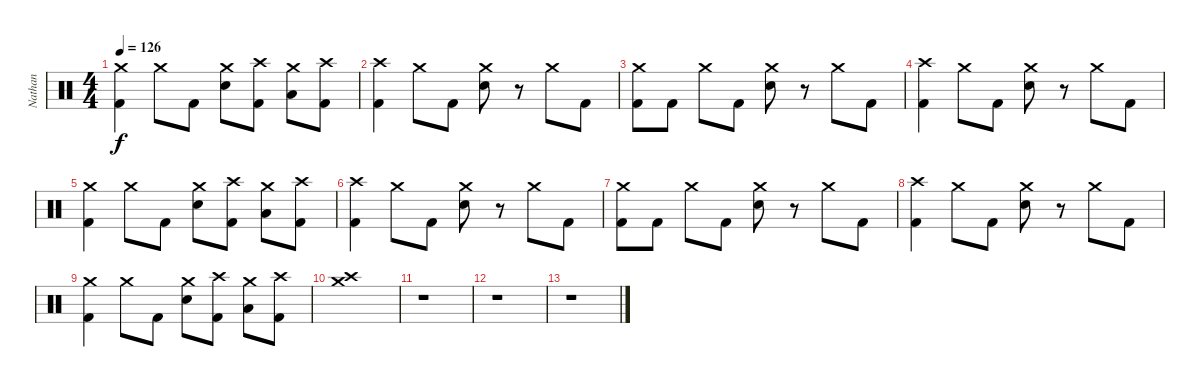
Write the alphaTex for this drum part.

\track ("Nathan" "Nathan") {instrument percussion}
\staff {score}
\articulation defaults
\ts (4 4)
\tempo 126
\clef neutral
\ks c
("Crash medium (hit)" "Kick (hit) 2").4{dy f} "Crash medium (hit)".8 "Kick (hit) 2".8 ("Crash medium (hit)" "Electric Snare (hit)").8 ("Crash high (hit)" "Kick (hit) 2").8 ("Crash medium (hit)" "Low Floor Tom (hit)").8 ("Crash high (hit)" "Kick (hit) 2").8 |
("Crash high (hit)" "Kick (hit) 2").4 "Crash medium (hit)".8 "Kick (hit) 2".8 ("Crash medium (hit)" "Electric Snare (hit)").8 r.8 "Crash medium (hit)".8 "Kick (hit) 2".8 |
("Crash medium (hit)" "Kick (hit) 2").8 "Kick (hit) 2".8 "Crash medium (hit)".8 "Kick (hit) 2".8 ("Crash medium (hit)" "Electric Snare (hit)").8 r.8 "Crash medium (hit)".8 "Kick (hit) 2".8 |
("Crash high (hit)" "Kick (hit) 2").4 "Crash medium (hit)".8 "Kick (hit) 2".8 ("Crash medium (hit)" "Electric Snare (hit)").8 r.8 "Crash medium (hit)".8 "Kick (hit) 2".8 |
("Crash medium (hit)" "Kick (hit) 2").4 "Crash medium (hit)".8 "Kick (hit) 2".8 ("Crash medium (hit)" "Electric Snare (hit)").8 ("Crash high (hit)" "Kick (hit) 2").8 ("Crash medium (hit)" "Low Floor Tom (hit)").8 ("Crash high (hit)" "Kick (hit) 2").8 |
("Crash high (hit)" "Kick (hit) 2").4 "Crash medium (hit)".8 "Kick (hit) 2".8 ("Crash medium (hit)" "Electric Snare (hit)").8 r.8 "Crash medium (hit)".8 "Kick (hit) 2".8 |
("Crash medium (hit)" "Kick (hit) 2").8 "Kick (hit) 2".8 "Crash medium (hit)".8 "Kick (hit) 2".8 ("Crash medium (hit)" "Electric Snare (hit)").8 r.8 "Crash medium (hit)".8 "Kick (hit) 2".8 |
("Crash high (hit)" "Kick (hit) 2").4 "Crash medium (hit)".8 "Kick (hit) 2".8 ("Crash medium (hit)" "Electric Snare (hit)").8 r.8 "Crash medium (hit)".8 "Kick (hit) 2".8 |
("Crash medium (hit)" "Kick (hit) 2").4 "Crash medium (hit)".8 "Kick (hit) 2".8 ("Crash medium (hit)" "Electric Snare (hit)").8 ("Crash high (hit)" "Kick (hit) 2").8 ("Crash medium (hit)" "Low Floor Tom (hit)").8 ("Crash high (hit)" "Kick (hit) 2").8 |
("Crash high (hit)" "Crash medium (hit)").1 |
r.1 |
r.1 |
r.1
